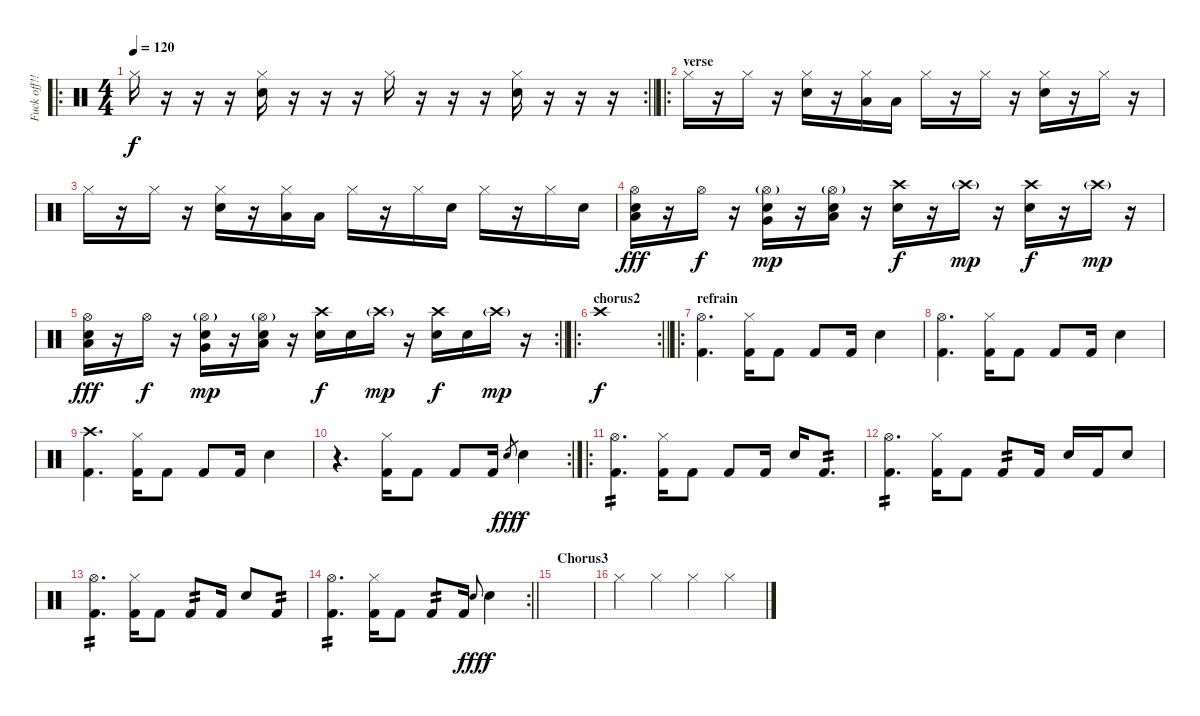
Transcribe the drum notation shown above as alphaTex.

\track ("Fuck off!!!     ..!." "Fuck off!!") {instrument percussion}
\staff {score}
\articulation defaults
\ro
\rc 2
\ts (4 4)
\tempo 120
\clef neutral
\barLineRight lightlight
\ks c "Hi-Hat (closed)".16{dy f}
r.16 r.16 r.16 ("Hi-Hat (closed)" "Snare (hit) 2").16 r.16 r.16 r.16 "Hi-Hat (closed)".16 r.16 r.16 r.16 ("Hi-Hat (closed)" "Snare (hit) 2").16 r.16 r.16 r.16 |
\ro
\section ("" "verse")
"Hi-Hat (closed)".16 r.16 "Hi-Hat (closed)".16 r.16 ("Hi-Hat (closed)" "Snare (hit) 2").16 r.16 ("Hi-Hat (closed)" "Low Floor Tom (hit)").16 "Low Tom (hit)".16 "Hi-Hat (closed)".16 r.16 "Hi-Hat (closed)".16 r.16 ("Hi-Hat (closed)" "Snare (hit) 2").16 r.16 "Hi-Hat (closed)".16 r.16 |
"Hi-Hat (closed)".16 r.16 "Hi-Hat (closed)".16 r.16 ("Hi-Hat (closed)" "Snare (hit) 2").16 r.16 ("Hi-Hat (closed)" "Low Floor Tom (hit)").16 "Low Tom (hit)".16 "Hi-Hat (closed)".16 r.16 "Hi-Hat (closed)".16 "Snare (hit) 2".16 "Hi-Hat (closed)".16 r.16 "Hi-Hat (closed)".16 "Snare (hit) 2".16 |
("Hi-Hat (open)" "Low Floor Tom (hit)" "Snare (hit) 2").16{dy fff} r.16 "Hi-Hat (open)".16{dy f} r.16 ("Hi-Hat (open)"{g} "Very Low Tom (hit)" "Snare (hit) 2").16{dy mp} r.16 ("Hi-Hat (open)"{g} "Low Tom (hit)" "Snare (hit) 2").16 r.16 ("Crash high (hit)" "Snare (hit) 2").16{dy f} r.16 "Crash high (hit)"{g}.16{dy mp} r.16 ("Crash high (hit)" "Snare (hit) 2").16{dy f} r.16 "Crash high (hit)"{g}.16{dy mp} r.16 |
\rc 2
\barLineRight lightlight
("Hi-Hat (open)" "Low Floor Tom (hit)" "Snare (hit) 2").16{dy fff} r.16 "Hi-Hat (open)".16{dy f} r.16 ("Hi-Hat (open)"{g} "Very Low Tom (hit)" "Snare (hit) 2").16{dy mp} r.16 ("Hi-Hat (open)"{g} "Low Tom (hit)" "Snare (hit) 2").16 r.16 ("Crash high (hit)" "Snare (hit) 2").16{dy f} "Snare (hit) 2".16 "Crash high (hit)"{g}.16{dy mp} r.16 ("Crash high (hit)" "Snare (hit) 2").16{dy f} "Snare (hit) 2".16 "Crash high (hit)"{g}.16{dy mp} r.16 |
\ro
\rc 2
\section ("" "chorus2")
\barLineRight lightlight "Crash high (hit)".1{dy f}
|
\ro
\section ("" "refrain")
("Kick (hit) 2" "Hi-Hat (open)").4{d} ("Kick (hit) 2" "Hi-Hat (closed)").16 "Kick (hit) 2".8 "Kick (hit) 2".8 "Kick (hit) 2".16 "Snare (hit) 2".4 |
("Kick (hit) 2" "Hi-Hat (open)").4{d} ("Kick (hit) 2" "Hi-Hat (closed)").16 "Kick (hit) 2".8 "Kick (hit) 2".8 "Kick (hit) 2".16 "Snare (hit) 2".4 |
("Kick (hit) 2" "Crash high (hit)").4{d} ("Kick (hit) 2" "Hi-Hat (closed)").16 "Kick (hit) 2".8 "Kick (hit) 2".8 "Kick (hit) 2".16 "Snare (hit) 2".4 |
\rc 2
r.4{d} ("Kick (hit) 2" "Hi-Hat (closed)").16 "Kick (hit) 2".8 "Kick (hit) 2".8 "Kick (hit) 2".16 "Snare (hit) 2".8{gr dy fff} "Snare (hit) 2".4{dy f} |
\ro
("Kick (hit) 2" "Hi-Hat (open)").4{d tp 2} ("Kick (hit) 2" "Hi-Hat (closed)").16 "Kick (hit) 2".8 "Kick (hit) 2".8 "Kick (hit) 2".16 "Snare (hit) 2".16 "Kick (hit) 2".8{d tp 2} |
("Kick (hit) 2" "Hi-Hat (open)").4{d tp 2} ("Kick (hit) 2" "Hi-Hat (closed)").16 "Kick (hit) 2".8 "Kick (hit) 2".8{tp 2} "Kick (hit) 2".16 "Snare (hit) 2".16 "Kick (hit) 2".16 "Snare (hit) 2".8 |
("Kick (hit) 2" "Hi-Hat (open)").4{d tp 2} ("Kick (hit) 2" "Hi-Hat (closed)").16 "Kick (hit) 2".8 "Kick (hit) 2".8{tp 2} "Kick (hit) 2".16 "Snare (hit) 2".8 "Kick (hit) 2".8{tp 2} |
\rc 2
\barLineRight lightlight
("Kick (hit) 2" "Hi-Hat (open)").4{d tp 2} ("Kick (hit) 2" "Hi-Hat (closed)").16 "Kick (hit) 2".8 "Kick (hit) 2".8{tp 2} "Kick (hit) 2".16 "Snare (hit) 2".8{gr onbeat dy fff} "Snare (hit) 2".4{dy f} |
\section ("" "Chorus3")
|
"Hi-Hat (closed)".4 "Hi-Hat (closed)".4 "Hi-Hat (closed)".4 "Hi-Hat (closed)".4
